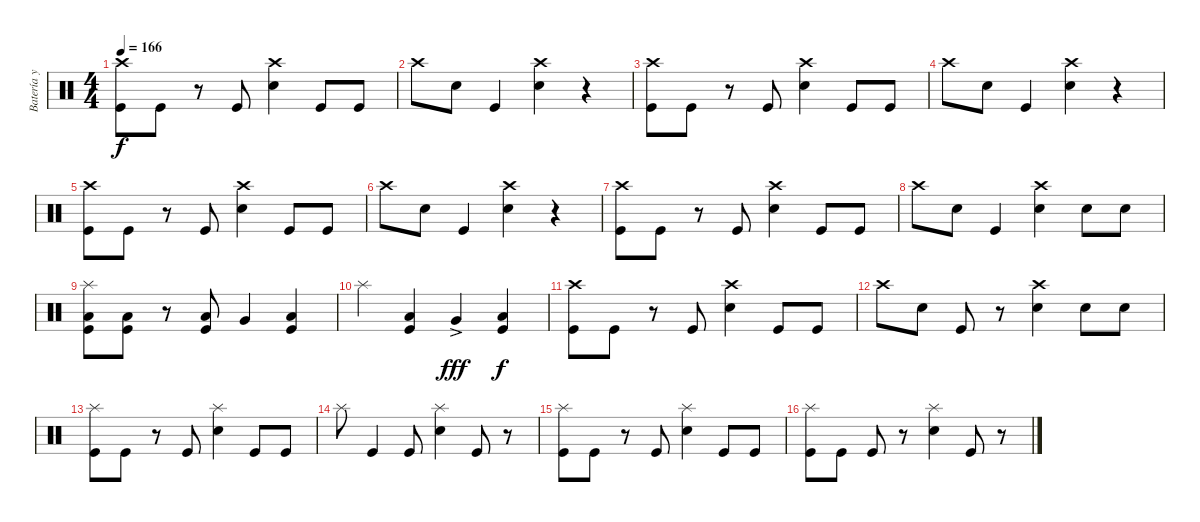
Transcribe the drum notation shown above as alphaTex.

\track ("Batería y letras" "Batería y ") {instrument percussion}
\staff {score}
\articulation defaults
\ts (4 4)
\tempo 166
\clef neutral
\ks c
("Kick (hit)" "Crash high (hit)").8{dy f} "Kick (hit)".8 r.8 "Kick (hit)".8 ("Electric Snare (hit)" "Crash high (hit)").4 "Kick (hit)".8 "Kick (hit)".8 |
"Crash high (hit)".8 "Electric Snare (hit)".8 "Kick (hit)".4 ("Electric Snare (hit)" "Crash high (hit)").4 r.4 |
("Kick (hit)" "Crash high (hit)").8 "Kick (hit)".8 r.8 "Kick (hit)".8 ("Electric Snare (hit)" "Crash high (hit)").4 "Kick (hit)".8 "Kick (hit)".8 |
"Crash high (hit)".8 "Electric Snare (hit)".8 "Kick (hit)".4 ("Electric Snare (hit)" "Crash high (hit)").4 r.4 |
("Kick (hit)" "Crash high (hit)").8 "Kick (hit)".8 r.8 "Kick (hit)".8 ("Electric Snare (hit)" "Crash high (hit)").4 "Kick (hit)".8 "Kick (hit)".8 |
"Crash high (hit)".8 "Electric Snare (hit)".8 "Kick (hit)".4 ("Electric Snare (hit)" "Crash high (hit)").4 r.4 |
("Kick (hit)" "Crash high (hit)").8 "Kick (hit)".8 r.8 "Kick (hit)".8 ("Electric Snare (hit)" "Crash high (hit)").4 "Kick (hit)".8 "Kick (hit)".8 |
"Crash high (hit)".8 "Electric Snare (hit)".8 "Kick (hit)".4 ("Electric Snare (hit)" "Crash high (hit)").4 "Electric Snare (hit)".8 "Electric Snare (hit)".8 |
("Low Floor Tom (hit)" "Kick (hit)" "Splash (hit)").8 ("Low Floor Tom (hit)" "Kick (hit)").8 r.8 ("Low Floor Tom (hit)" "Kick (hit)").8 "Very Low Tom (hit)".4 ("Low Floor Tom (hit)" "Kick (hit)").4 |
"Splash (hit)".4 ("Low Floor Tom (hit)" "Kick (hit)").4 "Very Low Tom (hit)"{ac}.4{dy fff} ("Low Floor Tom (hit)" "Kick (hit)").4{dy f} |
("Kick (hit)" "Crash high (hit)").8 "Kick (hit)".8 r.8 "Kick (hit)".8 ("Electric Snare (hit)" "Crash high (hit)").4 "Kick (hit)".8 "Kick (hit)".8 |
"Crash high (hit)".8 "Electric Snare (hit)".8 "Kick (hit)".8 r.8 ("Electric Snare (hit)" "Crash high (hit)").4 "Electric Snare (hit)".8 "Electric Snare (hit)".8 |
("Kick (hit)" "Splash (hit)").8 "Kick (hit)".8 r.8 "Kick (hit)".8 ("Electric Snare (hit)" "Splash (hit)").4 "Kick (hit)".8 "Kick (hit)".8 |
"Splash (hit)".8 "Kick (hit)".4 "Kick (hit)".8 ("Electric Snare (hit)" "Splash (hit)").4 "Kick (hit)".8 r.8 |
("Kick (hit)" "Splash (hit)").8 "Kick (hit)".8 r.8 "Kick (hit)".8 ("Electric Snare (hit)" "Splash (hit)").4 "Kick (hit)".8 "Kick (hit)".8 |
("Kick (hit)" "Splash (hit)").8 "Kick (hit)".8 "Kick (hit)".8 r.8 ("Electric Snare (hit)" "Splash (hit)").4 "Kick (hit)".8 r.8
